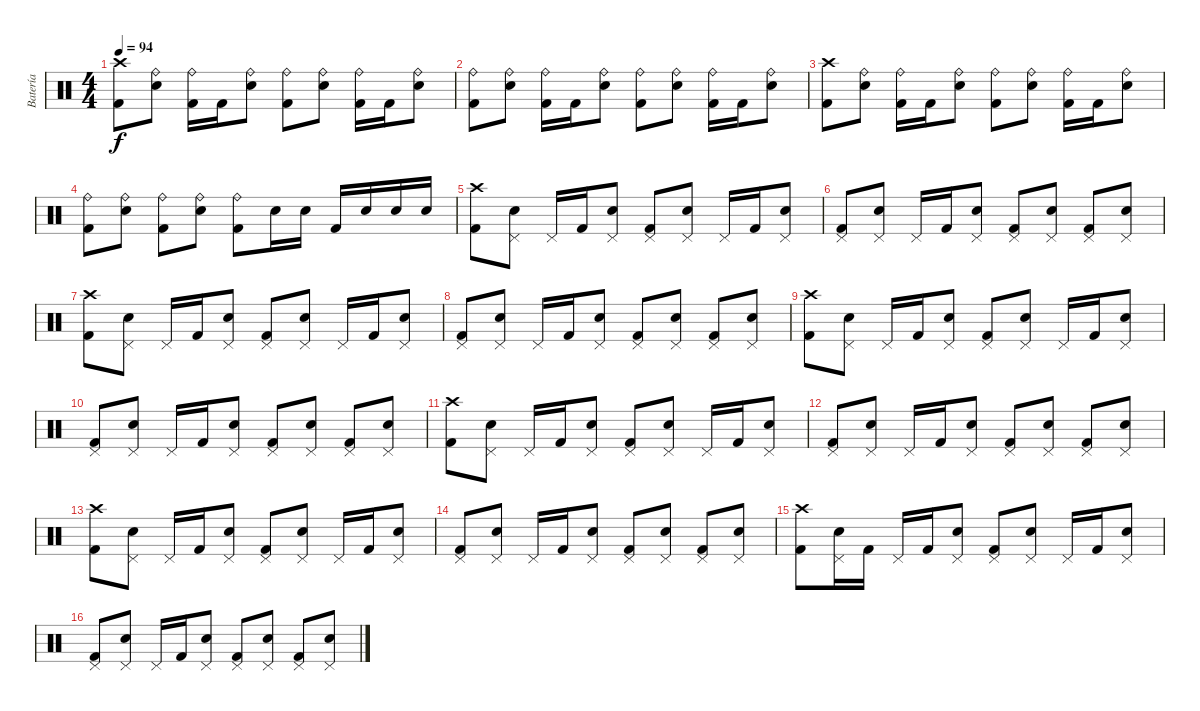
\track ("Batería" "Batería") {instrument percussion}
\staff {score}
\articulation defaults
\ts (4 4)
\tempo 94
\clef neutral
\ks c
("Crash high (hit)" "Kick (hit) 2").8{dy f} ("Ride (bell)" "Electric Snare (hit)").8 ("Ride (bell)" "Kick (hit) 2").16 "Kick (hit) 2".16 ("Ride (bell)" "Electric Snare (hit)").8 ("Ride (bell)" "Kick (hit) 2").8 ("Ride (bell)" "Electric Snare (hit)").8 ("Ride (bell)" "Kick (hit) 2").16 "Kick (hit) 2".16 ("Ride (bell)" "Electric Snare (hit)").8 |
("Ride (bell)" "Kick (hit) 2").8 ("Ride (bell)" "Electric Snare (hit)").8 ("Ride (bell)" "Kick (hit) 2").16 "Kick (hit) 2".16 ("Ride (bell)" "Electric Snare (hit)").8 ("Ride (bell)" "Kick (hit) 2").8 ("Ride (bell)" "Electric Snare (hit)").8 ("Ride (bell)" "Kick (hit) 2").16 "Kick (hit) 2".16 ("Ride (bell)" "Electric Snare (hit)").8 |
("Crash high (hit)" "Kick (hit) 2").8 ("Ride (bell)" "Electric Snare (hit)").8 ("Ride (bell)" "Kick (hit) 2").16 "Kick (hit) 2".16 ("Ride (bell)" "Electric Snare (hit)").8 ("Ride (bell)" "Kick (hit) 2").8 ("Ride (bell)" "Electric Snare (hit)").8 ("Ride (bell)" "Kick (hit) 2").16 "Kick (hit) 2".16 ("Ride (bell)" "Electric Snare (hit)").8 |
("Ride (bell)" "Kick (hit) 2").8 ("Ride (bell)" "Electric Snare (hit)").8 ("Ride (bell)" "Kick (hit) 2").8 ("Ride (bell)" "Electric Snare (hit)").8 ("Ride (bell)" "Kick (hit) 2").8 "Electric Snare (hit)".16 "Electric Snare (hit)".16 "Kick (hit) 2".16 "Electric Snare (hit)".16 "Electric Snare (hit)".16 "Electric Snare (hit)".16 |
("Crash high (hit)" "Kick (hit) 2").8 ("Pedal Hi-Hat (hit)" "Electric Snare (hit)").8 "Pedal Hi-Hat (hit)".16 "Kick (hit) 2".16 ("Pedal Hi-Hat (hit)" "Electric Snare (hit)").8 ("Pedal Hi-Hat (hit)" "Kick (hit) 2").8 ("Pedal Hi-Hat (hit)" "Electric Snare (hit)").8 "Pedal Hi-Hat (hit)".16 "Kick (hit) 2".16 ("Pedal Hi-Hat (hit)" "Electric Snare (hit)").8 |
("Pedal Hi-Hat (hit)" "Kick (hit) 2").8 ("Pedal Hi-Hat (hit)" "Electric Snare (hit)").8 "Pedal Hi-Hat (hit)".16 "Kick (hit) 2".16 ("Pedal Hi-Hat (hit)" "Electric Snare (hit)").8 ("Pedal Hi-Hat (hit)" "Kick (hit) 2").8 ("Pedal Hi-Hat (hit)" "Electric Snare (hit)").8 ("Pedal Hi-Hat (hit)" "Kick (hit) 2").8 ("Pedal Hi-Hat (hit)" "Electric Snare (hit)").8 |
("Crash high (hit)" "Kick (hit) 2").8 ("Pedal Hi-Hat (hit)" "Electric Snare (hit)").8 "Pedal Hi-Hat (hit)".16 "Kick (hit) 2".16 ("Pedal Hi-Hat (hit)" "Electric Snare (hit)").8 ("Pedal Hi-Hat (hit)" "Kick (hit) 2").8 ("Pedal Hi-Hat (hit)" "Electric Snare (hit)").8 "Pedal Hi-Hat (hit)".16 "Kick (hit) 2".16 ("Pedal Hi-Hat (hit)" "Electric Snare (hit)").8 |
("Pedal Hi-Hat (hit)" "Kick (hit) 2").8 ("Pedal Hi-Hat (hit)" "Electric Snare (hit)").8 "Pedal Hi-Hat (hit)".16 "Kick (hit) 2".16 ("Pedal Hi-Hat (hit)" "Electric Snare (hit)").8 ("Pedal Hi-Hat (hit)" "Kick (hit) 2").8 ("Pedal Hi-Hat (hit)" "Electric Snare (hit)").8 ("Pedal Hi-Hat (hit)" "Kick (hit) 2").8 ("Pedal Hi-Hat (hit)" "Electric Snare (hit)").8 |
("Crash high (hit)" "Kick (hit) 2").8 ("Pedal Hi-Hat (hit)" "Electric Snare (hit)").8 "Pedal Hi-Hat (hit)".16 "Kick (hit) 2".16 ("Pedal Hi-Hat (hit)" "Electric Snare (hit)").8 ("Pedal Hi-Hat (hit)" "Kick (hit) 2").8 ("Pedal Hi-Hat (hit)" "Electric Snare (hit)").8 "Pedal Hi-Hat (hit)".16 "Kick (hit) 2".16 ("Pedal Hi-Hat (hit)" "Electric Snare (hit)").8 |
("Pedal Hi-Hat (hit)" "Kick (hit) 2").8 ("Pedal Hi-Hat (hit)" "Electric Snare (hit)").8 "Pedal Hi-Hat (hit)".16 "Kick (hit) 2".16 ("Pedal Hi-Hat (hit)" "Electric Snare (hit)").8 ("Pedal Hi-Hat (hit)" "Kick (hit) 2").8 ("Pedal Hi-Hat (hit)" "Electric Snare (hit)").8 ("Pedal Hi-Hat (hit)" "Kick (hit) 2").8 ("Pedal Hi-Hat (hit)" "Electric Snare (hit)").8 |
("Crash high (hit)" "Kick (hit) 2").8 ("Pedal Hi-Hat (hit)" "Electric Snare (hit)").8 "Pedal Hi-Hat (hit)".16 "Kick (hit) 2".16 ("Pedal Hi-Hat (hit)" "Electric Snare (hit)").8 ("Pedal Hi-Hat (hit)" "Kick (hit) 2").8 ("Pedal Hi-Hat (hit)" "Electric Snare (hit)").8 "Pedal Hi-Hat (hit)".16 "Kick (hit) 2".16 ("Pedal Hi-Hat (hit)" "Electric Snare (hit)").8 |
("Pedal Hi-Hat (hit)" "Kick (hit) 2").8 ("Pedal Hi-Hat (hit)" "Electric Snare (hit)").8 "Pedal Hi-Hat (hit)".16 "Kick (hit) 2".16 ("Pedal Hi-Hat (hit)" "Electric Snare (hit)").8 ("Pedal Hi-Hat (hit)" "Kick (hit) 2").8 ("Pedal Hi-Hat (hit)" "Electric Snare (hit)").8 ("Pedal Hi-Hat (hit)" "Kick (hit) 2").8 ("Pedal Hi-Hat (hit)" "Electric Snare (hit)").8 |
("Crash high (hit)" "Kick (hit) 2").8 ("Pedal Hi-Hat (hit)" "Electric Snare (hit)").8 "Pedal Hi-Hat (hit)".16 "Kick (hit) 2".16 ("Pedal Hi-Hat (hit)" "Electric Snare (hit)").8 ("Pedal Hi-Hat (hit)" "Kick (hit) 2").8 ("Pedal Hi-Hat (hit)" "Electric Snare (hit)").8 "Pedal Hi-Hat (hit)".16 "Kick (hit) 2".16 ("Pedal Hi-Hat (hit)" "Electric Snare (hit)").8 |
("Pedal Hi-Hat (hit)" "Kick (hit) 2").8 ("Pedal Hi-Hat (hit)" "Electric Snare (hit)").8 "Pedal Hi-Hat (hit)".16 "Kick (hit) 2".16 ("Pedal Hi-Hat (hit)" "Electric Snare (hit)").8 ("Pedal Hi-Hat (hit)" "Kick (hit) 2").8 ("Pedal Hi-Hat (hit)" "Electric Snare (hit)").8 ("Pedal Hi-Hat (hit)" "Kick (hit) 2").8 ("Pedal Hi-Hat (hit)" "Electric Snare (hit)").8 |
("Crash high (hit)" "Kick (hit) 2").8 ("Pedal Hi-Hat (hit)" "Electric Snare (hit)").16 "Kick (hit) 2".16 "Pedal Hi-Hat (hit)".16 "Kick (hit) 2".16 ("Pedal Hi-Hat (hit)" "Electric Snare (hit)").8 ("Pedal Hi-Hat (hit)" "Kick (hit) 2").8 ("Pedal Hi-Hat (hit)" "Electric Snare (hit)").8 "Pedal Hi-Hat (hit)".16 "Kick (hit) 2".16 ("Pedal Hi-Hat (hit)" "Electric Snare (hit)").8 |
("Pedal Hi-Hat (hit)" "Kick (hit) 2").8 ("Pedal Hi-Hat (hit)" "Electric Snare (hit)").8 "Pedal Hi-Hat (hit)".16 "Kick (hit) 2".16 ("Pedal Hi-Hat (hit)" "Electric Snare (hit)").8 ("Pedal Hi-Hat (hit)" "Kick (hit) 2").8 ("Pedal Hi-Hat (hit)" "Electric Snare (hit)").8 ("Pedal Hi-Hat (hit)" "Kick (hit) 2").8 ("Pedal Hi-Hat (hit)" "Electric Snare (hit)").8
